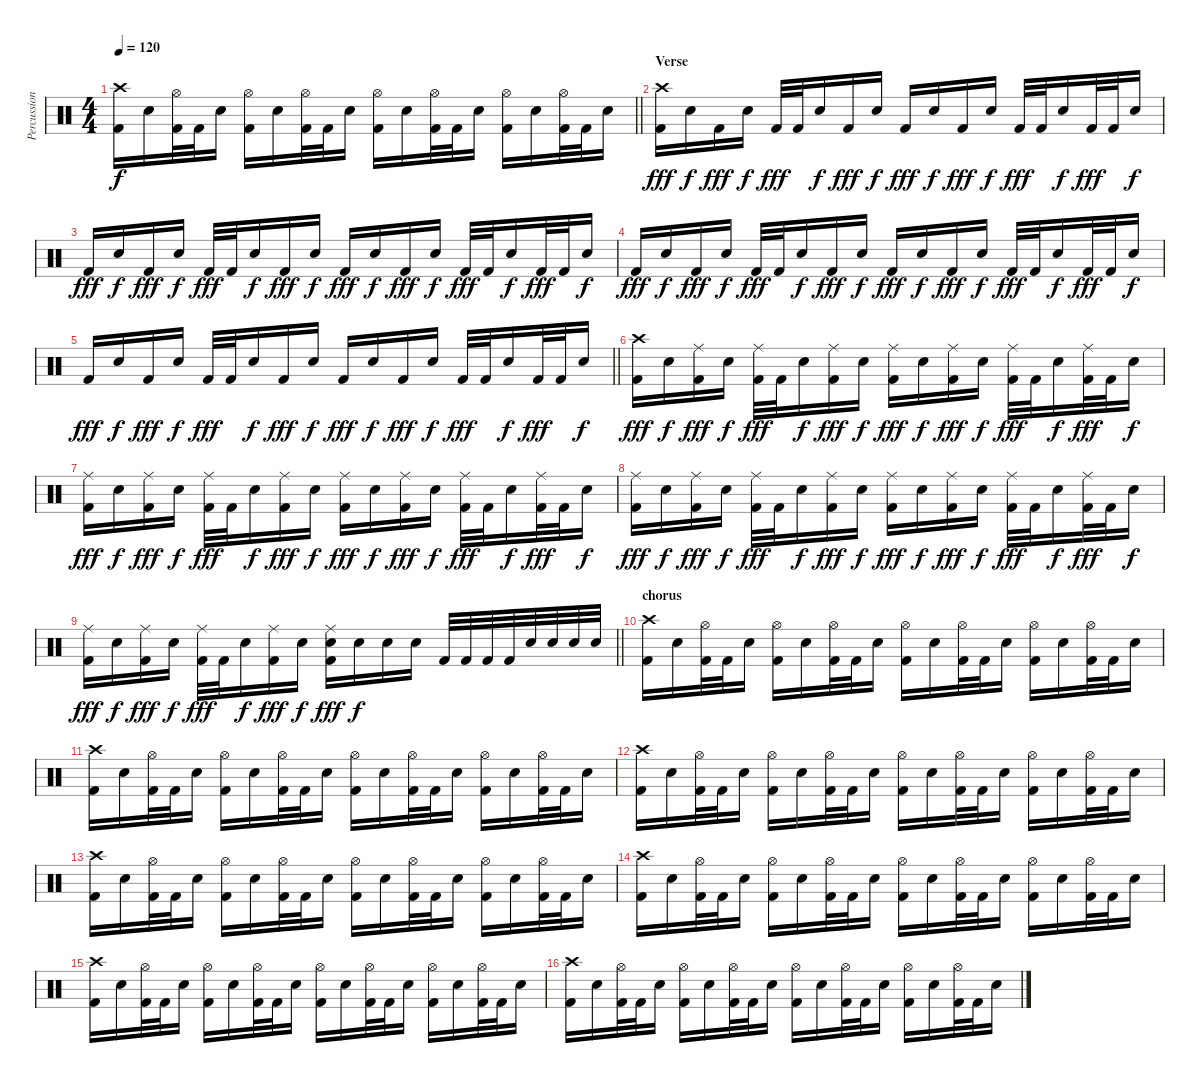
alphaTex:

\track ("Percussion" "Percussion") {instrument percussion}
\staff {score}
\articulation defaults
\ts (4 4)
\tempo 120
\clef neutral
\barLineRight lightlight
\ks c
("Crash high (hit)" "Kick (hit) 2").16{dy f} "Snare (hit) 2".16 ("Hi-Hat (open)" "Kick (hit) 2").32 "Kick (hit) 2".32 "Snare (hit) 2".16 ("Hi-Hat (open)" "Kick (hit) 2").16 "Snare (hit) 2".16 ("Hi-Hat (open)" "Kick (hit) 2").32 "Kick (hit) 2".32 "Snare (hit) 2".16 ("Hi-Hat (open)" "Kick (hit) 2").16 "Snare (hit) 2".16 ("Hi-Hat (open)" "Kick (hit) 2").32 "Kick (hit) 2".32 "Snare (hit) 2".16 ("Hi-Hat (open)" "Kick (hit) 2").16 "Snare (hit) 2".16 ("Hi-Hat (open)" "Kick (hit) 2").32 "Kick (hit) 2".32 "Snare (hit) 2".16 |
\section ("" "Verse ")
("Crash high (hit)" "Kick (hit) 2").16{dy fff} "Snare (hit) 2".16{dy f} "Kick (hit) 2".16{dy fff} "Snare (hit) 2".16{dy f} "Kick (hit) 2".32{dy fff} "Kick (hit) 2".32 "Snare (hit) 2".16{dy f} "Kick (hit) 2".16{dy fff} "Snare (hit) 2".16{dy f} "Kick (hit) 2".16{dy fff} "Snare (hit) 2".16{dy f} "Kick (hit) 2".16{dy fff} "Snare (hit) 2".16{dy f} "Kick (hit) 2".32{dy fff} "Kick (hit) 2".32 "Snare (hit) 2".16{dy f} "Kick (hit) 2".32{dy fff} "Kick (hit) 2".32 "Snare (hit) 2".16{dy f} |
"Kick (hit) 2".16{dy fff} "Snare (hit) 2".16{dy f} "Kick (hit) 2".16{dy fff} "Snare (hit) 2".16{dy f} "Kick (hit) 2".32{dy fff} "Kick (hit) 2".32 "Snare (hit) 2".16{dy f} "Kick (hit) 2".16{dy fff} "Snare (hit) 2".16{dy f} "Kick (hit) 2".16{dy fff} "Snare (hit) 2".16{dy f} "Kick (hit) 2".16{dy fff} "Snare (hit) 2".16{dy f} "Kick (hit) 2".32{dy fff} "Kick (hit) 2".32 "Snare (hit) 2".16{dy f} "Kick (hit) 2".32{dy fff} "Kick (hit) 2".32 "Snare (hit) 2".16{dy f} |
"Kick (hit) 2".16{dy fff} "Snare (hit) 2".16{dy f} "Kick (hit) 2".16{dy fff} "Snare (hit) 2".16{dy f} "Kick (hit) 2".32{dy fff} "Kick (hit) 2".32 "Snare (hit) 2".16{dy f} "Kick (hit) 2".16{dy fff} "Snare (hit) 2".16{dy f} "Kick (hit) 2".16{dy fff} "Snare (hit) 2".16{dy f} "Kick (hit) 2".16{dy fff} "Snare (hit) 2".16{dy f} "Kick (hit) 2".32{dy fff} "Kick (hit) 2".32 "Snare (hit) 2".16{dy f} "Kick (hit) 2".32{dy fff} "Kick (hit) 2".32 "Snare (hit) 2".16{dy f} |
\barLineRight lightlight "Kick (hit) 2".16{dy fff} "Snare (hit) 2".16{dy f} "Kick (hit) 2".16{dy fff} "Snare (hit) 2".16{dy f} "Kick (hit) 2".32{dy fff} "Kick (hit) 2".32 "Snare (hit) 2".16{dy f} "Kick (hit) 2".16{dy fff} "Snare (hit) 2".16{dy f} "Kick (hit) 2".16{dy fff} "Snare (hit) 2".16{dy f} "Kick (hit) 2".16{dy fff} "Snare (hit) 2".16{dy f} "Kick (hit) 2".32{dy fff} "Kick (hit) 2".32 "Snare (hit) 2".16{dy f} "Kick (hit) 2".32{dy fff} "Kick (hit) 2".32 "Snare (hit) 2".16{dy f}
|
("Crash high (hit)" "Kick (hit) 2").16{dy fff} "Snare (hit) 2".16{dy f} ("Ride (middle)" "Kick (hit) 2").16{dy fff} "Snare (hit) 2".16{dy f} ("Ride (middle)" "Kick (hit) 2").32{dy fff} "Kick (hit) 2".32 "Snare (hit) 2".16{dy f} ("Ride (middle)" "Kick (hit) 2").16{dy fff} "Snare (hit) 2".16{dy f} ("Ride (middle)" "Kick (hit) 2").16{dy fff} "Snare (hit) 2".16{dy f} ("Ride (middle)" "Kick (hit) 2").16{dy fff} "Snare (hit) 2".16{dy f} ("Ride (middle)" "Kick (hit) 2").32{dy fff} "Kick (hit) 2".32 "Snare (hit) 2".16{dy f} ("Ride (middle)" "Kick (hit) 2").32{dy fff} "Kick (hit) 2".32 "Snare (hit) 2".16{dy f} |
("Ride (middle)" "Kick (hit) 2").16{dy fff} "Snare (hit) 2".16{dy f} ("Ride (middle)" "Kick (hit) 2").16{dy fff} "Snare (hit) 2".16{dy f} ("Ride (middle)" "Kick (hit) 2").32{dy fff} "Kick (hit) 2".32 "Snare (hit) 2".16{dy f} ("Ride (middle)" "Kick (hit) 2").16{dy fff} "Snare (hit) 2".16{dy f} ("Ride (middle)" "Kick (hit) 2").16{dy fff} "Snare (hit) 2".16{dy f} ("Ride (middle)" "Kick (hit) 2").16{dy fff} "Snare (hit) 2".16{dy f} ("Ride (middle)" "Kick (hit) 2").32{dy fff} "Kick (hit) 2".32 "Snare (hit) 2".16{dy f} ("Ride (middle)" "Kick (hit) 2").32{dy fff} "Kick (hit) 2".32 "Snare (hit) 2".16{dy f} |
("Ride (middle)" "Kick (hit) 2").16{dy fff} "Snare (hit) 2".16{dy f} ("Ride (middle)" "Kick (hit) 2").16{dy fff} "Snare (hit) 2".16{dy f} ("Ride (middle)" "Kick (hit) 2").32{dy fff} "Kick (hit) 2".32 "Snare (hit) 2".16{dy f} ("Ride (middle)" "Kick (hit) 2").16{dy fff} "Snare (hit) 2".16{dy f} ("Ride (middle)" "Kick (hit) 2").16{dy fff} "Snare (hit) 2".16{dy f} ("Ride (middle)" "Kick (hit) 2").16{dy fff} "Snare (hit) 2".16{dy f} ("Ride (middle)" "Kick (hit) 2").32{dy fff} "Kick (hit) 2".32 "Snare (hit) 2".16{dy f} ("Ride (middle)" "Kick (hit) 2").32{dy fff} "Kick (hit) 2".32 "Snare (hit) 2".16{dy f} |
\barLineRight lightlight
("Ride (middle)" "Kick (hit) 2").16{dy fff} "Snare (hit) 2".16{dy f} ("Ride (middle)" "Kick (hit) 2").16{dy fff} "Snare (hit) 2".16{dy f} ("Ride (middle)" "Kick (hit) 2").32{dy fff} "Kick (hit) 2".32 "Snare (hit) 2".16{dy f} ("Ride (middle)" "Kick (hit) 2").16{dy fff} "Snare (hit) 2".16{dy f} ("Ride (middle)" "Snare (hit) 2" "Kick (hit) 2").16{dy fff} "Snare (hit) 2".16{dy f} "Snare (hit) 2".16 "Snare (hit) 2".16 "Kick (hit) 2".32 "Kick (hit) 2".32 "Kick (hit) 2".32 "Kick (hit) 2".32 "Snare (hit) 2".32 "Snare (hit) 2".32 "Snare (hit) 2".32 "Snare (hit) 2".32 |
\section ("" "chorus")
("Crash high (hit)" "Kick (hit) 2").16 "Snare (hit) 2".16 ("Hi-Hat (open)" "Kick (hit) 2").32 "Kick (hit) 2".32 "Snare (hit) 2".16 ("Hi-Hat (open)" "Kick (hit) 2").16 "Snare (hit) 2".16 ("Hi-Hat (open)" "Kick (hit) 2").32 "Kick (hit) 2".32 "Snare (hit) 2".16 ("Hi-Hat (open)" "Kick (hit) 2").16 "Snare (hit) 2".16 ("Hi-Hat (open)" "Kick (hit) 2").32 "Kick (hit) 2".32 "Snare (hit) 2".16 ("Hi-Hat (open)" "Kick (hit) 2").16 "Snare (hit) 2".16 ("Hi-Hat (open)" "Kick (hit) 2").32 "Kick (hit) 2".32 "Snare (hit) 2".16 |
("Crash high (hit)" "Kick (hit) 2").16 "Snare (hit) 2".16 ("Hi-Hat (open)" "Kick (hit) 2").32 "Kick (hit) 2".32 "Snare (hit) 2".16 ("Hi-Hat (open)" "Kick (hit) 2").16 "Snare (hit) 2".16 ("Hi-Hat (open)" "Kick (hit) 2").32 "Kick (hit) 2".32 "Snare (hit) 2".16 ("Hi-Hat (open)" "Kick (hit) 2").16 "Snare (hit) 2".16 ("Hi-Hat (open)" "Kick (hit) 2").32 "Kick (hit) 2".32 "Snare (hit) 2".16 ("Hi-Hat (open)" "Kick (hit) 2").16 "Snare (hit) 2".16 ("Hi-Hat (open)" "Kick (hit) 2").32 "Kick (hit) 2".32 "Snare (hit) 2".16 |
("Crash high (hit)" "Kick (hit) 2").16 "Snare (hit) 2".16 ("Hi-Hat (open)" "Kick (hit) 2").32 "Kick (hit) 2".32 "Snare (hit) 2".16 ("Hi-Hat (open)" "Kick (hit) 2").16 "Snare (hit) 2".16 ("Hi-Hat (open)" "Kick (hit) 2").32 "Kick (hit) 2".32 "Snare (hit) 2".16 ("Hi-Hat (open)" "Kick (hit) 2").16 "Snare (hit) 2".16 ("Hi-Hat (open)" "Kick (hit) 2").32 "Kick (hit) 2".32 "Snare (hit) 2".16 ("Hi-Hat (open)" "Kick (hit) 2").16 "Snare (hit) 2".16 ("Hi-Hat (open)" "Kick (hit) 2").32 "Kick (hit) 2".32 "Snare (hit) 2".16 |
("Crash high (hit)" "Kick (hit) 2").16 "Snare (hit) 2".16 ("Hi-Hat (open)" "Kick (hit) 2").32 "Kick (hit) 2".32 "Snare (hit) 2".16 ("Hi-Hat (open)" "Kick (hit) 2").16 "Snare (hit) 2".16 ("Hi-Hat (open)" "Kick (hit) 2").32 "Kick (hit) 2".32 "Snare (hit) 2".16 ("Hi-Hat (open)" "Kick (hit) 2").16 "Snare (hit) 2".16 ("Hi-Hat (open)" "Kick (hit) 2").32 "Kick (hit) 2".32 "Snare (hit) 2".16 ("Hi-Hat (open)" "Kick (hit) 2").16 "Snare (hit) 2".16 ("Hi-Hat (open)" "Kick (hit) 2").32 "Kick (hit) 2".32 "Snare (hit) 2".16 |
("Crash high (hit)" "Kick (hit) 2").16 "Snare (hit) 2".16 ("Hi-Hat (open)" "Kick (hit) 2").32 "Kick (hit) 2".32 "Snare (hit) 2".16 ("Hi-Hat (open)" "Kick (hit) 2").16 "Snare (hit) 2".16 ("Hi-Hat (open)" "Kick (hit) 2").32 "Kick (hit) 2".32 "Snare (hit) 2".16 ("Hi-Hat (open)" "Kick (hit) 2").16 "Snare (hit) 2".16 ("Hi-Hat (open)" "Kick (hit) 2").32 "Kick (hit) 2".32 "Snare (hit) 2".16 ("Hi-Hat (open)" "Kick (hit) 2").16 "Snare (hit) 2".16 ("Hi-Hat (open)" "Kick (hit) 2").32 "Kick (hit) 2".32 "Snare (hit) 2".16 |
("Crash high (hit)" "Kick (hit) 2").16 "Snare (hit) 2".16 ("Hi-Hat (open)" "Kick (hit) 2").32 "Kick (hit) 2".32 "Snare (hit) 2".16 ("Hi-Hat (open)" "Kick (hit) 2").16 "Snare (hit) 2".16 ("Hi-Hat (open)" "Kick (hit) 2").32 "Kick (hit) 2".32 "Snare (hit) 2".16 ("Hi-Hat (open)" "Kick (hit) 2").16 "Snare (hit) 2".16 ("Hi-Hat (open)" "Kick (hit) 2").32 "Kick (hit) 2".32 "Snare (hit) 2".16 ("Hi-Hat (open)" "Kick (hit) 2").16 "Snare (hit) 2".16 ("Hi-Hat (open)" "Kick (hit) 2").32 "Kick (hit) 2".32 "Snare (hit) 2".16 |
("Crash high (hit)" "Kick (hit) 2").16 "Snare (hit) 2".16 ("Hi-Hat (open)" "Kick (hit) 2").32 "Kick (hit) 2".32 "Snare (hit) 2".16 ("Hi-Hat (open)" "Kick (hit) 2").16 "Snare (hit) 2".16 ("Hi-Hat (open)" "Kick (hit) 2").32 "Kick (hit) 2".32 "Snare (hit) 2".16 ("Hi-Hat (open)" "Kick (hit) 2").16 "Snare (hit) 2".16 ("Hi-Hat (open)" "Kick (hit) 2").32 "Kick (hit) 2".32 "Snare (hit) 2".16 ("Hi-Hat (open)" "Kick (hit) 2").16 "Snare (hit) 2".16 ("Hi-Hat (open)" "Kick (hit) 2").32 "Kick (hit) 2".32 "Snare (hit) 2".16
